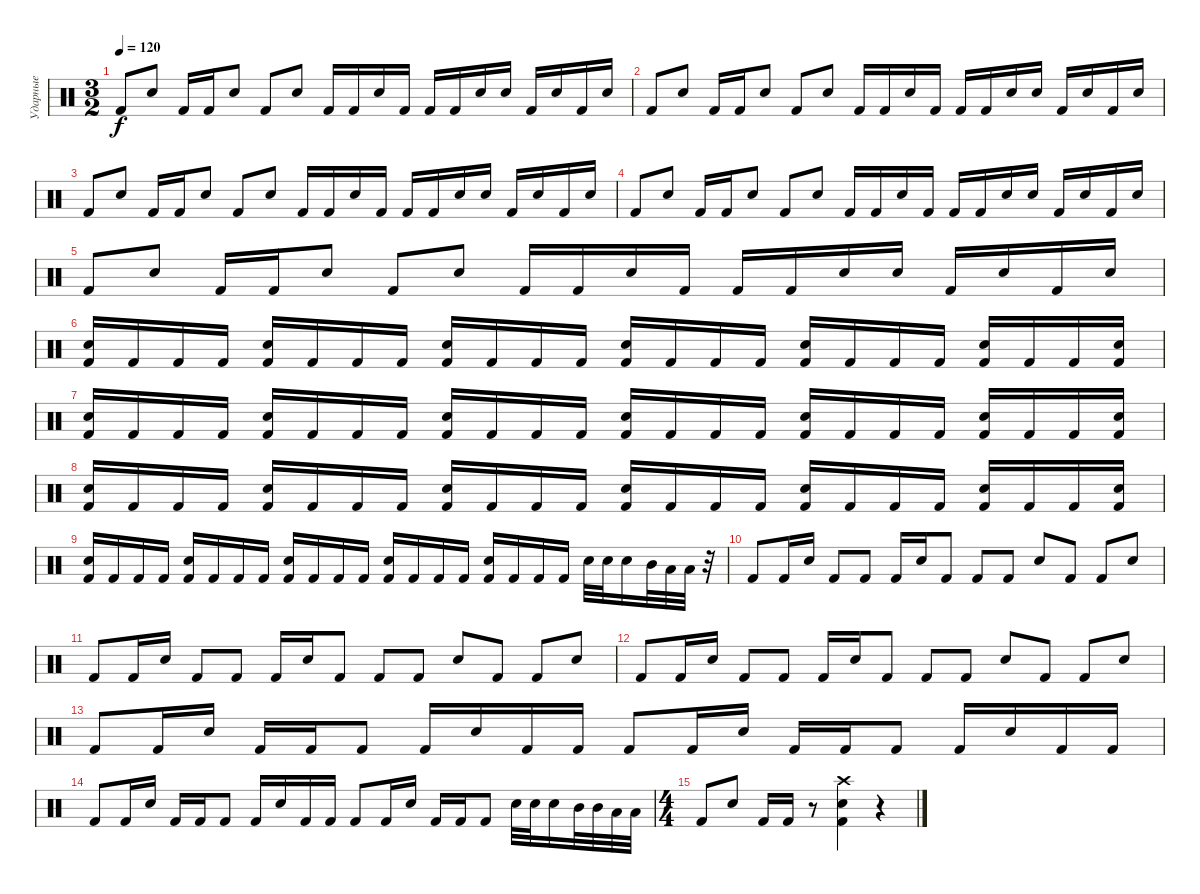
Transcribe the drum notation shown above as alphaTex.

\track ("Ударные" "Ударные") {instrument percussion}
\staff {score}
\articulation defaults
\ts (3 2)
\tempo 120
\clef neutral
\ks c "Kick (hit) 2".8{dy f} "Snare (hit) 2".8 "Kick (hit) 2".16 "Kick (hit) 2".16 "Snare (hit) 2".8 "Kick (hit) 2".8 "Snare (hit) 2".8 "Kick (hit) 2".16 "Kick (hit) 2".16 "Snare (hit) 2".16 "Kick (hit) 2".16 "Kick (hit) 2".16 "Kick (hit) 2".16 "Snare (hit) 2".16 "Snare (hit) 2".16 "Kick (hit) 2".16 "Snare (hit) 2".16 "Kick (hit) 2".16 "Snare (hit) 2".16
|
"Kick (hit) 2".8 "Snare (hit) 2".8 "Kick (hit) 2".16 "Kick (hit) 2".16 "Snare (hit) 2".8 "Kick (hit) 2".8 "Snare (hit) 2".8 "Kick (hit) 2".16 "Kick (hit) 2".16 "Snare (hit) 2".16 "Kick (hit) 2".16 "Kick (hit) 2".16 "Kick (hit) 2".16 "Snare (hit) 2".16 "Snare (hit) 2".16 "Kick (hit) 2".16 "Snare (hit) 2".16 "Kick (hit) 2".16 "Snare (hit) 2".16 |
"Kick (hit) 2".8 "Snare (hit) 2".8 "Kick (hit) 2".16 "Kick (hit) 2".16 "Snare (hit) 2".8 "Kick (hit) 2".8 "Snare (hit) 2".8 "Kick (hit) 2".16 "Kick (hit) 2".16 "Snare (hit) 2".16 "Kick (hit) 2".16 "Kick (hit) 2".16 "Kick (hit) 2".16 "Snare (hit) 2".16 "Snare (hit) 2".16 "Kick (hit) 2".16 "Snare (hit) 2".16 "Kick (hit) 2".16 "Snare (hit) 2".16 |
"Kick (hit) 2".8 "Snare (hit) 2".8 "Kick (hit) 2".16 "Kick (hit) 2".16 "Snare (hit) 2".8 "Kick (hit) 2".8 "Snare (hit) 2".8 "Kick (hit) 2".16 "Kick (hit) 2".16 "Snare (hit) 2".16 "Kick (hit) 2".16 "Kick (hit) 2".16 "Kick (hit) 2".16 "Snare (hit) 2".16 "Snare (hit) 2".16 "Kick (hit) 2".16 "Snare (hit) 2".16 "Kick (hit) 2".16 "Snare (hit) 2".16 |
"Kick (hit) 2".8 "Snare (hit) 2".8 "Kick (hit) 2".16 "Kick (hit) 2".16 "Snare (hit) 2".8 "Kick (hit) 2".8 "Snare (hit) 2".8 "Kick (hit) 2".16 "Kick (hit) 2".16 "Snare (hit) 2".16 "Kick (hit) 2".16 "Kick (hit) 2".16 "Kick (hit) 2".16 "Snare (hit) 2".16 "Snare (hit) 2".16 "Kick (hit) 2".16 "Snare (hit) 2".16 "Kick (hit) 2".16 "Snare (hit) 2".16 |
("Snare (hit) 2" "Kick (hit) 2").16 "Kick (hit) 2".16 "Kick (hit) 2".16 "Kick (hit) 2".16 ("Snare (hit) 2" "Kick (hit) 2").16 "Kick (hit) 2".16 "Kick (hit) 2".16 "Kick (hit) 2".16 ("Snare (hit) 2" "Kick (hit) 2").16 "Kick (hit) 2".16 "Kick (hit) 2".16 "Kick (hit) 2".16 ("Snare (hit) 2" "Kick (hit) 2").16 "Kick (hit) 2".16 "Kick (hit) 2".16 "Kick (hit) 2".16 ("Snare (hit) 2" "Kick (hit) 2").16 "Kick (hit) 2".16 "Kick (hit) 2".16 "Kick (hit) 2".16 ("Snare (hit) 2" "Kick (hit) 2").16 "Kick (hit) 2".16 "Kick (hit) 2".16 ("Snare (hit) 2" "Kick (hit) 2").16 |
("Snare (hit) 2" "Kick (hit) 2").16 "Kick (hit) 2".16 "Kick (hit) 2".16 "Kick (hit) 2".16 ("Snare (hit) 2" "Kick (hit) 2").16 "Kick (hit) 2".16 "Kick (hit) 2".16 "Kick (hit) 2".16 ("Snare (hit) 2" "Kick (hit) 2").16 "Kick (hit) 2".16 "Kick (hit) 2".16 "Kick (hit) 2".16 ("Snare (hit) 2" "Kick (hit) 2").16 "Kick (hit) 2".16 "Kick (hit) 2".16 "Kick (hit) 2".16 ("Snare (hit) 2" "Kick (hit) 2").16 "Kick (hit) 2".16 "Kick (hit) 2".16 "Kick (hit) 2".16 ("Snare (hit) 2" "Kick (hit) 2").16 "Kick (hit) 2".16 "Kick (hit) 2".16 ("Snare (hit) 2" "Kick (hit) 2").16 |
("Snare (hit) 2" "Kick (hit) 2").16 "Kick (hit) 2".16 "Kick (hit) 2".16 "Kick (hit) 2".16 ("Snare (hit) 2" "Kick (hit) 2").16 "Kick (hit) 2".16 "Kick (hit) 2".16 "Kick (hit) 2".16 ("Snare (hit) 2" "Kick (hit) 2").16 "Kick (hit) 2".16 "Kick (hit) 2".16 "Kick (hit) 2".16 ("Snare (hit) 2" "Kick (hit) 2").16 "Kick (hit) 2".16 "Kick (hit) 2".16 "Kick (hit) 2".16 ("Snare (hit) 2" "Kick (hit) 2").16 "Kick (hit) 2".16 "Kick (hit) 2".16 "Kick (hit) 2".16 ("Snare (hit) 2" "Kick (hit) 2").16 "Kick (hit) 2".16 "Kick (hit) 2".16 ("Snare (hit) 2" "Kick (hit) 2").16 |
("Snare (hit) 2" "Kick (hit) 2").16 "Kick (hit) 2".16 "Kick (hit) 2".16 "Kick (hit) 2".16 ("Snare (hit) 2" "Kick (hit) 2").16 "Kick (hit) 2".16 "Kick (hit) 2".16 "Kick (hit) 2".16 ("Snare (hit) 2" "Kick (hit) 2").16 "Kick (hit) 2".16 "Kick (hit) 2".16 "Kick (hit) 2".16 ("Snare (hit) 2" "Kick (hit) 2").16 "Kick (hit) 2".16 "Kick (hit) 2".16 "Kick (hit) 2".16 ("Snare (hit) 2" "Kick (hit) 2").16 "Kick (hit) 2".16 "Kick (hit) 2".16 "Kick (hit) 2".16 "Snare (hit) 2".32 "Snare (hit) 2".32 "Snare (hit) 2".16 "Mid Tom (hit)".32 "Low Tom (hit)".32 "Low Tom (hit)".32 r.32 |
"Kick (hit) 2".8 "Kick (hit) 2".16 "Snare (hit) 2".16 "Kick (hit) 2".8 "Kick (hit) 2".8 "Kick (hit) 2".16 "Snare (hit) 2".16 "Kick (hit) 2".8 "Kick (hit) 2".8 "Kick (hit) 2".8 "Snare (hit) 2".8 "Kick (hit) 2".8 "Kick (hit) 2".8 "Snare (hit) 2".8 |
"Kick (hit) 2".8 "Kick (hit) 2".16 "Snare (hit) 2".16 "Kick (hit) 2".8 "Kick (hit) 2".8 "Kick (hit) 2".16 "Snare (hit) 2".16 "Kick (hit) 2".8 "Kick (hit) 2".8 "Kick (hit) 2".8 "Snare (hit) 2".8 "Kick (hit) 2".8 "Kick (hit) 2".8 "Snare (hit) 2".8 |
"Kick (hit) 2".8 "Kick (hit) 2".16 "Snare (hit) 2".16 "Kick (hit) 2".8 "Kick (hit) 2".8 "Kick (hit) 2".16 "Snare (hit) 2".16 "Kick (hit) 2".8 "Kick (hit) 2".8 "Kick (hit) 2".8 "Snare (hit) 2".8 "Kick (hit) 2".8 "Kick (hit) 2".8 "Snare (hit) 2".8 |
"Kick (hit) 2".8 "Kick (hit) 2".16 "Snare (hit) 2".16 "Kick (hit) 2".16 "Kick (hit) 2".16 "Kick (hit) 2".8 "Kick (hit) 2".16 "Snare (hit) 2".16 "Kick (hit) 2".16 "Kick (hit) 2".16 "Kick (hit) 2".8 "Kick (hit) 2".16 "Snare (hit) 2".16 "Kick (hit) 2".16 "Kick (hit) 2".16 "Kick (hit) 2".8 "Kick (hit) 2".16 "Snare (hit) 2".16 "Kick (hit) 2".16 "Kick (hit) 2".16 |
"Kick (hit) 2".8 "Kick (hit) 2".16 "Snare (hit) 2".16 "Kick (hit) 2".16 "Kick (hit) 2".16 "Kick (hit) 2".8 "Kick (hit) 2".16 "Snare (hit) 2".16 "Kick (hit) 2".16 "Kick (hit) 2".16 "Kick (hit) 2".8 "Kick (hit) 2".16 "Snare (hit) 2".16 "Kick (hit) 2".16 "Kick (hit) 2".16 "Kick (hit) 2".8 "Snare (hit) 2".32 "Snare (hit) 2".32 "Snare (hit) 2".16 "Mid Tom (hit)".32 "Mid Tom (hit)".32 "Low Tom (hit)".32 "Low Tom (hit)".32 |
\ts (4 4)
"Kick (hit) 2".8 "Snare (hit) 2".8 "Kick (hit) 2".16 "Kick (hit) 2".16 r.8 ("Crash high (hit)" "Snare (hit) 2" "Kick (hit) 2").4 r.4
